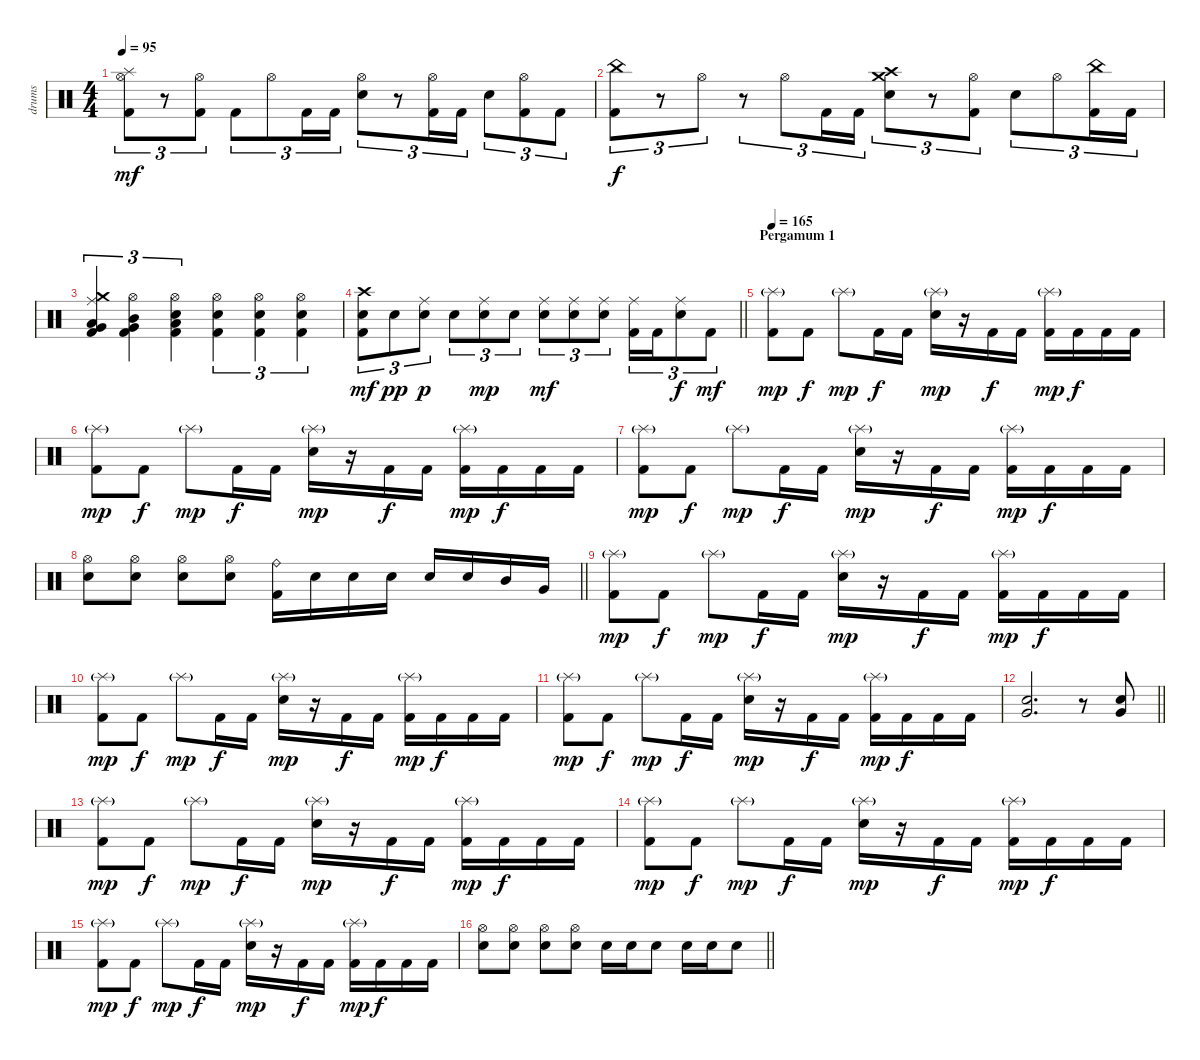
\track ("drums" "drums") {instrument percussion}
\staff {score}
\articulation defaults
\ts (4 4)
\tempo 95
\clef neutral
\ks c
("Splash (hit)" "Hi-Hat (open)" "Kick (hit) 2").8{tu (3 2) dy mf} r.8{tu (3 2)} ("Hi-Hat (open)" "Kick (hit) 2").8{tu (3 2)} "Kick (hit) 2".8{tu (3 2)} "Hi-Hat (open)".8{tu (3 2)} "Kick (hit) 2".16{tu (3 2)} "Kick (hit) 2".16{tu (3 2)} ("Hi-Hat (open)" "Electric Snare (hit)").8{tu (3 2)} r.8{tu (3 2)} ("Hi-Hat (open)" "Kick (hit) 2").16{tu (3 2)} "Kick (hit) 2".16{tu (3 2)} "Electric Snare (hit)".8{tu (3 2)} ("Hi-Hat (open)" "Kick (hit) 2").8{tu (3 2)} "Kick (hit) 2".8{tu (3 2)} |
("China (hit)" "Kick (hit) 2").8{tu (3 2) dy f} r.8{tu (3 2)} "Hi-Hat (open)".8{tu (3 2)} r.8{tu (3 2)} "Hi-Hat (open)".8{tu (3 2)} "Kick (hit) 2".16{tu (3 2)} "Kick (hit) 2".16{tu (3 2)} ("Crash high (hit)" "Crash medium (hit)" "Electric Snare (hit)").8{tu (3 2)} r.8{tu (3 2)} ("Hi-Hat (open)" "Kick (hit) 2").8{tu (3 2)} "Electric Snare (hit)".8{tu (3 2)} "Hi-Hat (open)".8{tu (3 2)} ("China (hit)" "Kick (hit) 2").16{tu (3 2)} "Kick (hit) 2".16{tu (3 2)} |
("Crash medium (hit)" "Ride (middle)" "Very Low Tom (hit)" "Low Floor Tom (hit)" "Kick (hit) 2").4{tu (3 2)} ("Hi-Hat (open)" "Mid Tom (hit)" "Very Low Tom (hit)" "Kick (hit) 2").4{tu (3 2)} ("Hi-Hat (open)" "Electric Snare (hit)" "Low Floor Tom (hit)" "Kick (hit) 2").4{tu (3 2)} ("Hi-Hat (open)" "Electric Snare (hit)" "Kick (hit) 2").4{tu (3 2)} ("Hi-Hat (open)" "Electric Snare (hit)" "Kick (hit) 2").4{tu (3 2)} ("Hi-Hat (open)" "Electric Snare (hit)" "Kick (hit) 2").4{tu (3 2)} |
\barLineRight lightlight
("Crash high (hit)" "Electric Snare (hit)" "Kick (hit) 2").8{tu (3 2) dy mf} "Electric Snare (hit)".8{tu (3 2) dy pp} ("Ride (middle)" "Electric Snare (hit)").8{tu (3 2) dy p} "Electric Snare (hit)".8{tu (3 2)} ("Ride (middle)" "Electric Snare (hit)").8{tu (3 2) dy mp} "Electric Snare (hit)".8{tu (3 2)} ("Ride (middle)" "Electric Snare (hit)").8{tu (3 2) dy mf} ("Ride (middle)" "Electric Snare (hit)").8{tu (3 2)} ("Ride (middle)" "Electric Snare (hit)").8{tu (3 2)} ("Ride (middle)" "Kick (hit) 2").16{tu (3 2)} "Kick (hit) 2".16{tu (3 2)} ("Ride (middle)" "Electric Snare (hit)").8{tu (3 2) dy f} "Kick (hit) 2".8{tu (3 2) dy mf} |
\section ("" "Pergamum 1")
\tempo 165
("Splash (hit)"{g} "Kick (hit) 2").8{dy mp} "Kick (hit) 2".8{dy f} "Splash (hit)"{g}.8{dy mp} "Kick (hit) 2".16{dy f} "Kick (hit) 2".16 ("Splash (hit)"{g} "Electric Snare (hit)").16{dy mp} r.16 "Kick (hit) 2".16{dy f} "Kick (hit) 2".16 ("Splash (hit)"{g} "Kick (hit) 2").16{dy mp} "Kick (hit) 2".16{dy f} "Kick (hit) 2".16 "Kick (hit) 2".16 |
("Splash (hit)"{g} "Kick (hit) 2").8{dy mp} "Kick (hit) 2".8{dy f} "Splash (hit)"{g}.8{dy mp} "Kick (hit) 2".16{dy f} "Kick (hit) 2".16 ("Splash (hit)"{g} "Electric Snare (hit)").16{dy mp} r.16 "Kick (hit) 2".16{dy f} "Kick (hit) 2".16 ("Splash (hit)"{g} "Kick (hit) 2").16{dy mp} "Kick (hit) 2".16{dy f} "Kick (hit) 2".16 "Kick (hit) 2".16 |
("Splash (hit)"{g} "Kick (hit) 2").8{dy mp} "Kick (hit) 2".8{dy f} "Splash (hit)"{g}.8{dy mp} "Kick (hit) 2".16{dy f} "Kick (hit) 2".16 ("Splash (hit)"{g} "Electric Snare (hit)").16{dy mp} r.16 "Kick (hit) 2".16{dy f} "Kick (hit) 2".16 ("Splash (hit)"{g} "Kick (hit) 2").16{dy mp} "Kick (hit) 2".16{dy f} "Kick (hit) 2".16 "Kick (hit) 2".16 |
\barLineRight lightlight
("Hi-Hat (open)" "Electric Snare (hit)").8 ("Hi-Hat (open)" "Electric Snare (hit)").8 ("Hi-Hat (open)" "Electric Snare (hit)").8 ("Hi-Hat (open)" "Electric Snare (hit)").8 ("Ride (bell)" "Kick (hit) 2").16 "Electric Snare (hit)".16 "Electric Snare (hit)".16 "Electric Snare (hit)".16 "Electric Snare (hit)".16 "Electric Snare (hit)".16 "Mid Tom (hit)".16 "Very Low Tom (hit)".16 |
\section ("" "")
("Splash (hit)"{g} "Kick (hit) 2").8{dy mp} "Kick (hit) 2".8{dy f} "Splash (hit)"{g}.8{dy mp} "Kick (hit) 2".16{dy f} "Kick (hit) 2".16 ("Splash (hit)"{g} "Electric Snare (hit)").16{dy mp} r.16 "Kick (hit) 2".16{dy f} "Kick (hit) 2".16 ("Splash (hit)"{g} "Kick (hit) 2").16{dy mp} "Kick (hit) 2".16{dy f} "Kick (hit) 2".16 "Kick (hit) 2".16 |
("Splash (hit)"{g} "Kick (hit) 2").8{dy mp} "Kick (hit) 2".8{dy f} "Splash (hit)"{g}.8{dy mp} "Kick (hit) 2".16{dy f} "Kick (hit) 2".16 ("Splash (hit)"{g} "Electric Snare (hit)").16{dy mp} r.16 "Kick (hit) 2".16{dy f} "Kick (hit) 2".16 ("Splash (hit)"{g} "Kick (hit) 2").16{dy mp} "Kick (hit) 2".16{dy f} "Kick (hit) 2".16 "Kick (hit) 2".16 |
("Splash (hit)"{g} "Kick (hit) 2").8{dy mp} "Kick (hit) 2".8{dy f} "Splash (hit)"{g}.8{dy mp} "Kick (hit) 2".16{dy f} "Kick (hit) 2".16 ("Splash (hit)"{g} "Electric Snare (hit)").16{dy mp} r.16 "Kick (hit) 2".16{dy f} "Kick (hit) 2".16 ("Splash (hit)"{g} "Kick (hit) 2").16{dy mp} "Kick (hit) 2".16{dy f} "Kick (hit) 2".16 "Kick (hit) 2".16 |
\barLineRight lightlight
("Electric Snare (hit)" "Very Low Tom (hit)").2{d} r.8 ("Electric Snare (hit)" "Very Low Tom (hit)").8 |
\section ("" "")
("Splash (hit)"{g} "Kick (hit) 2").8{dy mp} "Kick (hit) 2".8{dy f} "Splash (hit)"{g}.8{dy mp} "Kick (hit) 2".16{dy f} "Kick (hit) 2".16 ("Splash (hit)"{g} "Electric Snare (hit)").16{dy mp} r.16 "Kick (hit) 2".16{dy f} "Kick (hit) 2".16 ("Splash (hit)"{g} "Kick (hit) 2").16{dy mp} "Kick (hit) 2".16{dy f} "Kick (hit) 2".16 "Kick (hit) 2".16 |
("Splash (hit)"{g} "Kick (hit) 2").8{dy mp} "Kick (hit) 2".8{dy f} "Splash (hit)"{g}.8{dy mp} "Kick (hit) 2".16{dy f} "Kick (hit) 2".16 ("Splash (hit)"{g} "Electric Snare (hit)").16{dy mp} r.16 "Kick (hit) 2".16{dy f} "Kick (hit) 2".16 ("Splash (hit)"{g} "Kick (hit) 2").16{dy mp} "Kick (hit) 2".16{dy f} "Kick (hit) 2".16 "Kick (hit) 2".16 |
("Splash (hit)"{g} "Kick (hit) 2").8{dy mp} "Kick (hit) 2".8{dy f} "Splash (hit)"{g}.8{dy mp} "Kick (hit) 2".16{dy f} "Kick (hit) 2".16 ("Splash (hit)"{g} "Electric Snare (hit)").16{dy mp} r.16 "Kick (hit) 2".16{dy f} "Kick (hit) 2".16 ("Splash (hit)"{g} "Kick (hit) 2").16{dy mp} "Kick (hit) 2".16{dy f} "Kick (hit) 2".16 "Kick (hit) 2".16 |
\barLineRight lightlight
("Hi-Hat (open)" "Electric Snare (hit)").8 ("Hi-Hat (open)" "Electric Snare (hit)").8 ("Hi-Hat (open)" "Electric Snare (hit)").8 ("Hi-Hat (open)" "Electric Snare (hit)").8 "Electric Snare (hit)".16 "Electric Snare (hit)".16 "Electric Snare (hit)".8 "Electric Snare (hit)".16 "Electric Snare (hit)".16 "Electric Snare (hit)".8
